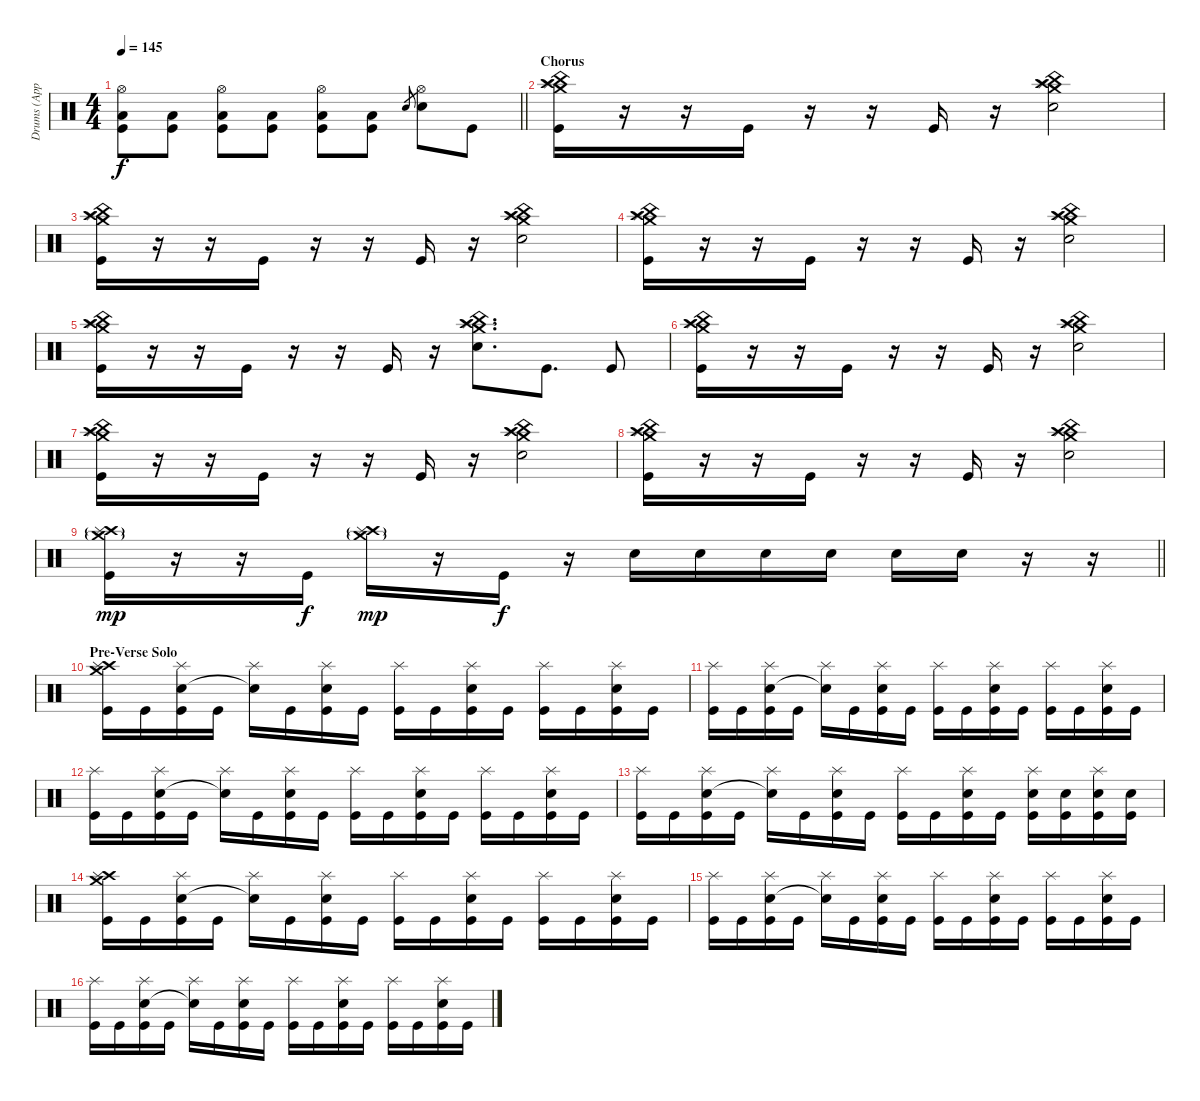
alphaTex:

\track ("Drums (Approx.)" "Drums (App") {instrument percussion}
\staff {score}
\articulation defaults
\ts (4 4)
\tempo 145
\clef neutral
\barLineRight lightlight
\ks c
("Hi-Hat (open)" "Low Floor Tom (hit)" "Kick (hit)").8{dy f} ("Low Floor Tom (hit)" "Kick (hit)").8 ("Hi-Hat (open)" "Low Floor Tom (hit)" "Kick (hit)").8 ("Low Floor Tom (hit)" "Kick (hit)").8 ("Hi-Hat (open)" "Low Floor Tom (hit)" "Kick (hit)").8 ("Low Floor Tom (hit)" "Kick (hit)").8 "Electric Snare (hit)".8{gr} ("Hi-Hat (open)" "Electric Snare (hit)").8 "Kick (hit)".8 |
\section ("" "Chorus")
("Crash high (hit)" "Crash medium (hit)" "Splash (hit)" "China (hit)" "Kick (hit)").16 r.16 r.16 "Kick (hit)".16 r.16 r.16 "Kick (hit)".16 r.16 ("Crash high (hit)" "Crash medium (hit)" "Splash (hit)" "China (hit)" "Electric Snare (hit)").2 |
("Crash high (hit)" "Crash medium (hit)" "Splash (hit)" "China (hit)" "Kick (hit)").16 r.16 r.16 "Kick (hit)".16 r.16 r.16 "Kick (hit)".16 r.16 ("Crash high (hit)" "Crash medium (hit)" "Splash (hit)" "China (hit)" "Electric Snare (hit)").2 |
("Crash high (hit)" "Crash medium (hit)" "Splash (hit)" "China (hit)" "Kick (hit)").16 r.16 r.16 "Kick (hit)".16 r.16 r.16 "Kick (hit)".16 r.16 ("Crash high (hit)" "Crash medium (hit)" "Splash (hit)" "China (hit)" "Electric Snare (hit)").2 |
("Crash high (hit)" "Crash medium (hit)" "Splash (hit)" "China (hit)" "Kick (hit)").16 r.16 r.16 "Kick (hit)".16 r.16 r.16 "Kick (hit)".16 r.16 ("Crash high (hit)" "Crash medium (hit)" "Splash (hit)" "China (hit)" "Electric Snare (hit)").8{d} "Kick (hit)".8{d} "Kick (hit)".8 |
("Crash high (hit)" "Crash medium (hit)" "Splash (hit)" "China (hit)" "Kick (hit)").16 r.16 r.16 "Kick (hit)".16 r.16 r.16 "Kick (hit)".16 r.16 ("Crash high (hit)" "Crash medium (hit)" "Splash (hit)" "China (hit)" "Electric Snare (hit)").2 |
("Crash high (hit)" "Crash medium (hit)" "Splash (hit)" "China (hit)" "Kick (hit)").16 r.16 r.16 "Kick (hit)".16 r.16 r.16 "Kick (hit)".16 r.16 ("Crash high (hit)" "Crash medium (hit)" "Splash (hit)" "China (hit)" "Electric Snare (hit)").2 |
("Crash high (hit)" "Crash medium (hit)" "Splash (hit)" "China (hit)" "Kick (hit)").16 r.16 r.16 "Kick (hit)".16 r.16 r.16 "Kick (hit)".16 r.16 ("Crash high (hit)" "Crash medium (hit)" "Splash (hit)" "China (hit)" "Electric Snare (hit)").2 |
\barLineRight lightlight
("Crash high (hit)"{g} "Crash medium (hit)"{g} "Splash (hit)" "Kick (hit)").16{dy mp} r.16 r.16 "Kick (hit)".16{dy f} ("Crash high (hit)"{g} "Crash medium (hit)"{g} "Splash (hit)").16{dy mp} r.16 "Kick (hit)".16{dy f} r.16 "Electric Snare (hit)".16 "Electric Snare (hit)".16 "Electric Snare (hit)".16 "Electric Snare (hit)".16 "Electric Snare (hit)".16 "Electric Snare (hit)".16 r.16 r.16 |
\section ("" "Pre-Verse Solo")
("Crash high (hit)" "Crash medium (hit)" "Splash (hit)" "Kick (hit)").16 "Kick (hit)".16 ("Splash (hit)" "Electric Snare (hit)" "Kick (hit)").16 "Kick (hit)".16 ("Splash (hit)" "Snare (hit)"{t}).16 "Kick (hit)".16 ("Splash (hit)" "Electric Snare (hit)" "Kick (hit)").16 "Kick (hit)".16 ("Splash (hit)" "Kick (hit)").16 "Kick (hit)".16 ("Splash (hit)" "Electric Snare (hit)" "Kick (hit)").16 "Kick (hit)".16 ("Splash (hit)" "Kick (hit)").16 "Kick (hit)".16 ("Splash (hit)" "Electric Snare (hit)" "Kick (hit)").16 "Kick (hit)".16 |
("Splash (hit)" "Kick (hit)").16 "Kick (hit)".16 ("Splash (hit)" "Electric Snare (hit)" "Kick (hit)").16 "Kick (hit)".16 ("Splash (hit)" "Snare (hit)"{t}).16 "Kick (hit)".16 ("Splash (hit)" "Electric Snare (hit)" "Kick (hit)").16 "Kick (hit)".16 ("Splash (hit)" "Kick (hit)").16 "Kick (hit)".16 ("Splash (hit)" "Electric Snare (hit)" "Kick (hit)").16 "Kick (hit)".16 ("Splash (hit)" "Kick (hit)").16 "Kick (hit)".16 ("Splash (hit)" "Electric Snare (hit)" "Kick (hit)").16 "Kick (hit)".16 |
("Splash (hit)" "Kick (hit)").16 "Kick (hit)".16 ("Splash (hit)" "Electric Snare (hit)" "Kick (hit)").16 "Kick (hit)".16 ("Splash (hit)" "Snare (hit)"{t}).16 "Kick (hit)".16 ("Splash (hit)" "Electric Snare (hit)" "Kick (hit)").16 "Kick (hit)".16 ("Splash (hit)" "Kick (hit)").16 "Kick (hit)".16 ("Splash (hit)" "Electric Snare (hit)" "Kick (hit)").16 "Kick (hit)".16 ("Splash (hit)" "Kick (hit)").16 "Kick (hit)".16 ("Splash (hit)" "Electric Snare (hit)" "Kick (hit)").16 "Kick (hit)".16 |
("Splash (hit)" "Kick (hit)").16 "Kick (hit)".16 ("Splash (hit)" "Electric Snare (hit)" "Kick (hit)").16 "Kick (hit)".16 ("Splash (hit)" "Snare (hit)"{t}).16 "Kick (hit)".16 ("Splash (hit)" "Electric Snare (hit)" "Kick (hit)").16 "Kick (hit)".16 ("Splash (hit)" "Kick (hit)").16 "Kick (hit)".16 ("Splash (hit)" "Electric Snare (hit)" "Kick (hit)").16 "Kick (hit)".16 ("Splash (hit)" "Electric Snare (hit)" "Kick (hit)").16 ("Electric Snare (hit)" "Kick (hit)").16 ("Splash (hit)" "Electric Snare (hit)" "Kick (hit)").16 ("Electric Snare (hit)" "Kick (hit)").16 |
("Crash high (hit)" "Crash medium (hit)" "Splash (hit)" "Kick (hit)").16 "Kick (hit)".16 ("Splash (hit)" "Electric Snare (hit)" "Kick (hit)").16 "Kick (hit)".16 ("Splash (hit)" "Snare (hit)"{t}).16 "Kick (hit)".16 ("Splash (hit)" "Electric Snare (hit)" "Kick (hit)").16 "Kick (hit)".16 ("Splash (hit)" "Kick (hit)").16 "Kick (hit)".16 ("Splash (hit)" "Electric Snare (hit)" "Kick (hit)").16 "Kick (hit)".16 ("Splash (hit)" "Kick (hit)").16 "Kick (hit)".16 ("Splash (hit)" "Electric Snare (hit)" "Kick (hit)").16 "Kick (hit)".16 |
("Splash (hit)" "Kick (hit)").16 "Kick (hit)".16 ("Splash (hit)" "Electric Snare (hit)" "Kick (hit)").16 "Kick (hit)".16 ("Splash (hit)" "Snare (hit)"{t}).16 "Kick (hit)".16 ("Splash (hit)" "Electric Snare (hit)" "Kick (hit)").16 "Kick (hit)".16 ("Splash (hit)" "Kick (hit)").16 "Kick (hit)".16 ("Splash (hit)" "Electric Snare (hit)" "Kick (hit)").16 "Kick (hit)".16 ("Splash (hit)" "Kick (hit)").16 "Kick (hit)".16 ("Splash (hit)" "Electric Snare (hit)" "Kick (hit)").16 "Kick (hit)".16 |
("Splash (hit)" "Kick (hit)").16 "Kick (hit)".16 ("Splash (hit)" "Electric Snare (hit)" "Kick (hit)").16 "Kick (hit)".16 ("Splash (hit)" "Snare (hit)"{t}).16 "Kick (hit)".16 ("Splash (hit)" "Electric Snare (hit)" "Kick (hit)").16 "Kick (hit)".16 ("Splash (hit)" "Kick (hit)").16 "Kick (hit)".16 ("Splash (hit)" "Electric Snare (hit)" "Kick (hit)").16 "Kick (hit)".16 ("Splash (hit)" "Kick (hit)").16 "Kick (hit)".16 ("Splash (hit)" "Electric Snare (hit)" "Kick (hit)").16 "Kick (hit)".16
